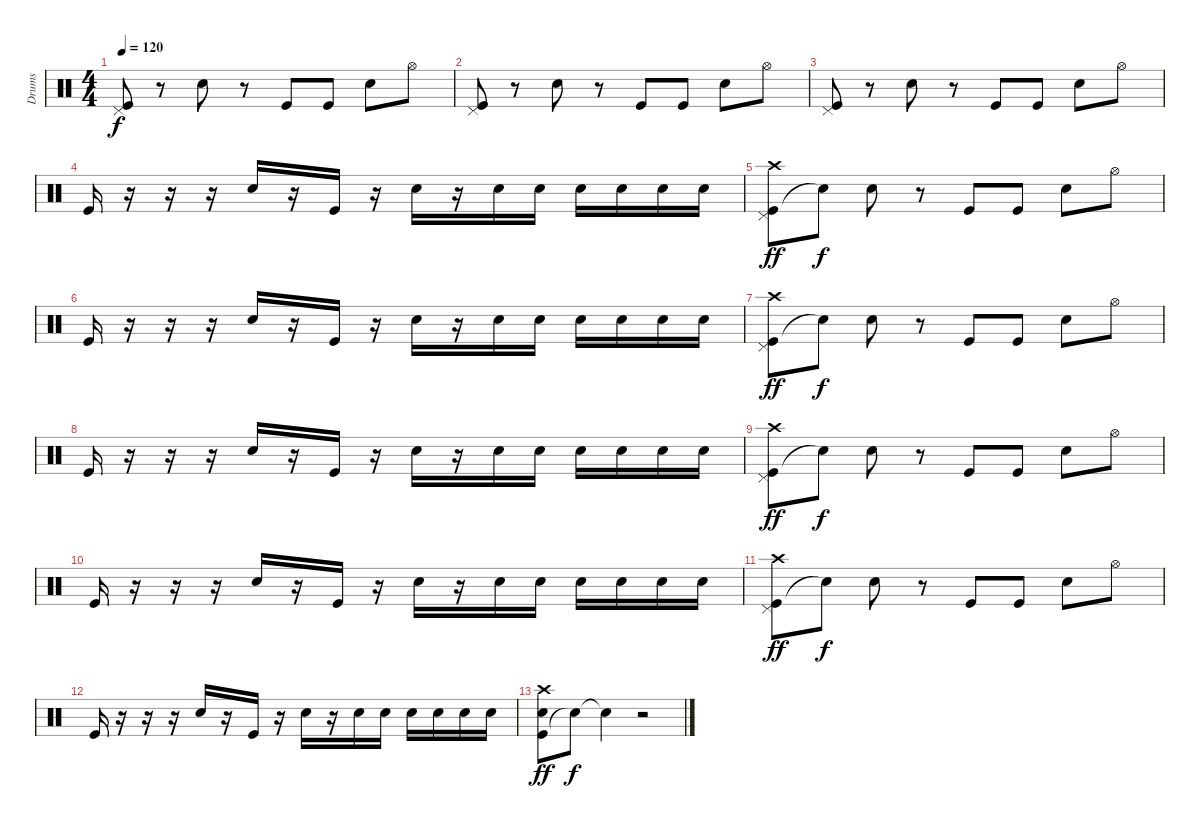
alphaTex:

\track ("Drums" "Drums") {instrument percussion}
\staff {score}
\articulation defaults
\ts (4 4)
\tempo 120
\clef neutral
\ks c
("Kick (hit)" "Pedal Hi-Hat (hit)").8{dy f} r.8 "Snare (hit) 2".8 r.8 "Kick (hit)".8 "Kick (hit)".8 "Snare (hit) 2".8 "Hi-Hat (open)".8 |
("Kick (hit)" "Pedal Hi-Hat (hit)").8 r.8 "Snare (hit) 2".8 r.8 "Kick (hit)".8 "Kick (hit)".8 "Snare (hit) 2".8 "Hi-Hat (open)".8 |
("Kick (hit)" "Pedal Hi-Hat (hit)").8 r.8 "Snare (hit) 2".8 r.8 "Kick (hit)".8 "Kick (hit)".8 "Snare (hit) 2".8 "Hi-Hat (open)".8 |
"Kick (hit)".16 r.16 r.16 r.16 "Snare (hit) 2".16 r.16 "Kick (hit)".16 r.16 "Snare (hit) 2".16 r.16 "Snare (hit) 2".16 "Snare (hit) 2".16 "Snare (hit) 2".16 "Snare (hit) 2".16 "Snare (hit) 2".16 "Snare (hit) 2".16 |
("Kick (hit)" "Pedal Hi-Hat (hit)" "Crash high (hit)").8{dy ff} "Snare (hit)"{t}.8{dy f} "Snare (hit) 2".8 r.8 "Kick (hit)".8 "Kick (hit)".8 "Snare (hit) 2".8 "Hi-Hat (open)".8 |
"Kick (hit)".16 r.16 r.16 r.16 "Snare (hit) 2".16 r.16 "Kick (hit)".16 r.16 "Snare (hit) 2".16 r.16 "Snare (hit) 2".16 "Snare (hit) 2".16 "Snare (hit) 2".16 "Snare (hit) 2".16 "Snare (hit) 2".16 "Snare (hit) 2".16 |
("Kick (hit)" "Pedal Hi-Hat (hit)" "Crash high (hit)").8{dy ff} "Snare (hit)"{t}.8{dy f} "Snare (hit) 2".8 r.8 "Kick (hit)".8 "Kick (hit)".8 "Snare (hit) 2".8 "Hi-Hat (open)".8 |
"Kick (hit)".16 r.16 r.16 r.16 "Snare (hit) 2".16 r.16 "Kick (hit)".16 r.16 "Snare (hit) 2".16 r.16 "Snare (hit) 2".16 "Snare (hit) 2".16 "Snare (hit) 2".16 "Snare (hit) 2".16 "Snare (hit) 2".16 "Snare (hit) 2".16 |
("Kick (hit)" "Pedal Hi-Hat (hit)" "Crash high (hit)").8{dy ff} "Snare (hit)"{t}.8{dy f} "Snare (hit) 2".8 r.8 "Kick (hit)".8 "Kick (hit)".8 "Snare (hit) 2".8 "Hi-Hat (open)".8 |
"Kick (hit)".16 r.16 r.16 r.16 "Snare (hit) 2".16 r.16 "Kick (hit)".16 r.16 "Snare (hit) 2".16 r.16 "Snare (hit) 2".16 "Snare (hit) 2".16 "Snare (hit) 2".16 "Snare (hit) 2".16 "Snare (hit) 2".16 "Snare (hit) 2".16 |
("Kick (hit)" "Pedal Hi-Hat (hit)" "Crash high (hit)").8{dy ff} "Snare (hit)"{t}.8{dy f} "Snare (hit) 2".8 r.8 "Kick (hit)".8 "Kick (hit)".8 "Snare (hit) 2".8 "Hi-Hat (open)".8 |
"Kick (hit)".16 r.16 r.16 r.16 "Snare (hit) 2".16 r.16 "Kick (hit)".16 r.16 "Snare (hit) 2".16 r.16 "Snare (hit) 2".16 "Snare (hit) 2".16 "Snare (hit) 2".16 "Snare (hit) 2".16 "Snare (hit) 2".16 "Snare (hit) 2".16 |
("Kick (hit)" "Crash high (hit)" "Snare (hit) 2").8{dy ff} "Snare (hit)"{t}.8{dy f} "Snare (hit)"{t}.4 r.2
